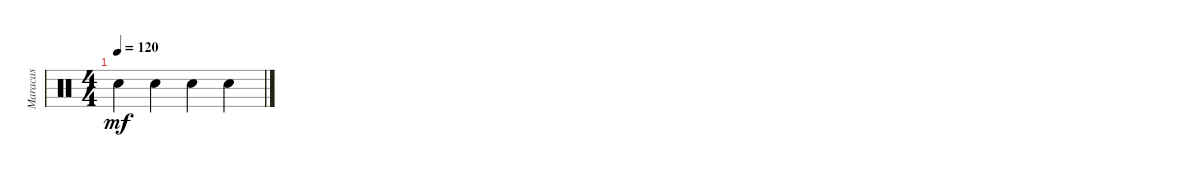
\track ("Maracas" "Maracas") {instrument percussion}
\staff {score}
\articulation defaults
\ts (4 4)
\tempo 120
\clef neutral
\ks c "Snare (hit)".4{dy mf} "Snare (hit)".4 "Snare (hit)".4 "Snare (hit)".4
